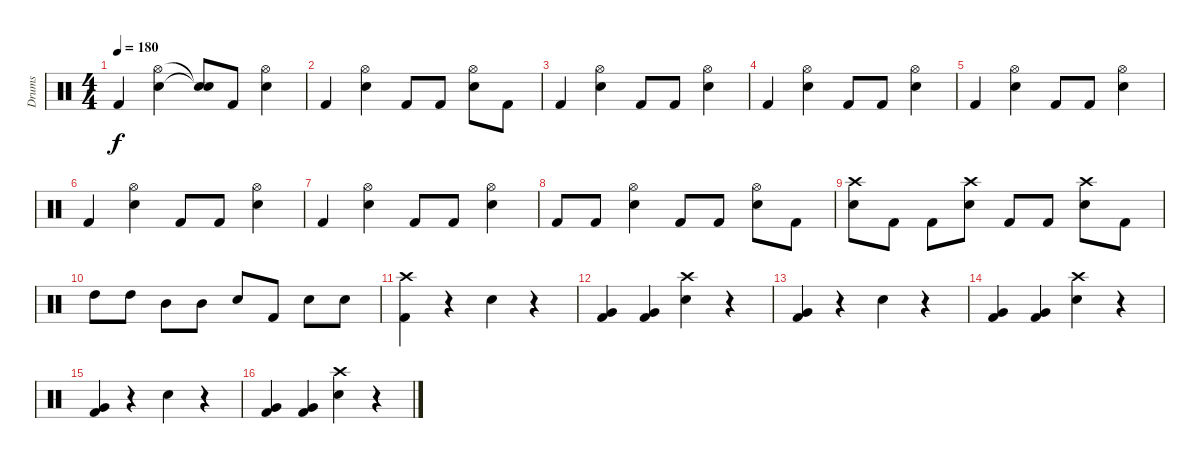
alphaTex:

\track ("Drums" "Drums") {instrument percussion}
\staff {score}
\articulation defaults
\ts (4 4)
\tempo 180
\clef neutral
\ks c "Kick (hit) 2".4{dy f}
("Hi-Hat (open)" "Electric Snare (hit)").4 ("Snare (hit)"{t} "Snare (hit)"{t}).8 "Kick (hit) 2".8 ("Hi-Hat (open)" "Electric Snare (hit)").4 |
"Kick (hit) 2".4 ("Hi-Hat (open)" "Electric Snare (hit)").4 "Kick (hit) 2".8 "Kick (hit) 2".8 ("Hi-Hat (open)" "Electric Snare (hit)").8 "Kick (hit) 2".8 |
"Kick (hit) 2".4 ("Hi-Hat (open)" "Electric Snare (hit)").4 "Kick (hit) 2".8 "Kick (hit) 2".8 ("Hi-Hat (open)" "Electric Snare (hit)").4 |
"Kick (hit) 2".4 ("Hi-Hat (open)" "Electric Snare (hit)").4 "Kick (hit) 2".8 "Kick (hit) 2".8 ("Hi-Hat (open)" "Electric Snare (hit)").4 |
"Kick (hit) 2".4 ("Hi-Hat (open)" "Electric Snare (hit)").4 "Kick (hit) 2".8 "Kick (hit) 2".8 ("Hi-Hat (open)" "Electric Snare (hit)").4 |
"Kick (hit) 2".4 ("Hi-Hat (open)" "Electric Snare (hit)").4 "Kick (hit) 2".8 "Kick (hit) 2".8 ("Hi-Hat (open)" "Electric Snare (hit)").4 |
"Kick (hit) 2".4 ("Hi-Hat (open)" "Electric Snare (hit)").4 "Kick (hit) 2".8 "Kick (hit) 2".8 ("Hi-Hat (open)" "Electric Snare (hit)").4 |
"Kick (hit) 2".8 "Kick (hit) 2".8 ("Hi-Hat (open)" "Electric Snare (hit)").4 "Kick (hit) 2".8 "Kick (hit) 2".8 ("Hi-Hat (open)" "Electric Snare (hit)").8 "Kick (hit) 2".8 |
("Crash high (hit)" "Electric Snare (hit)").8 "Kick (hit) 2".8 "Kick (hit) 2".8 ("Crash high (hit)" "Electric Snare (hit)").8 "Kick (hit) 2".8 "Kick (hit) 2".8 ("Crash high (hit)" "Electric Snare (hit)").8 "Kick (hit) 2".8 |
"High Tom (hit)".8 "High Tom (hit)".8 "Mid Tom (hit)".8 "Mid Tom (hit)".8 "Electric Snare (hit)".8 "Kick (hit) 2".8 "Electric Snare (hit)".8 "Electric Snare (hit)".8 |
("Crash high (hit)" "Kick (hit) 2").4 r.4 "Electric Snare (hit)".4 r.4 |
("Very Low Tom (hit)" "Kick (hit) 2").4 ("Very Low Tom (hit)" "Kick (hit) 2").4 ("Crash high (hit)" "Electric Snare (hit)").4 r.4 |
("Very Low Tom (hit)" "Kick (hit) 2").4 r.4 "Electric Snare (hit)".4 r.4 |
("Very Low Tom (hit)" "Kick (hit) 2").4 ("Very Low Tom (hit)" "Kick (hit) 2").4 ("Crash high (hit)" "Electric Snare (hit)").4 r.4 |
("Very Low Tom (hit)" "Kick (hit) 2").4 r.4 "Electric Snare (hit)".4 r.4 |
("Very Low Tom (hit)" "Kick (hit) 2").4 ("Very Low Tom (hit)" "Kick (hit) 2").4 ("Crash high (hit)" "Electric Snare (hit)").4 r.4
